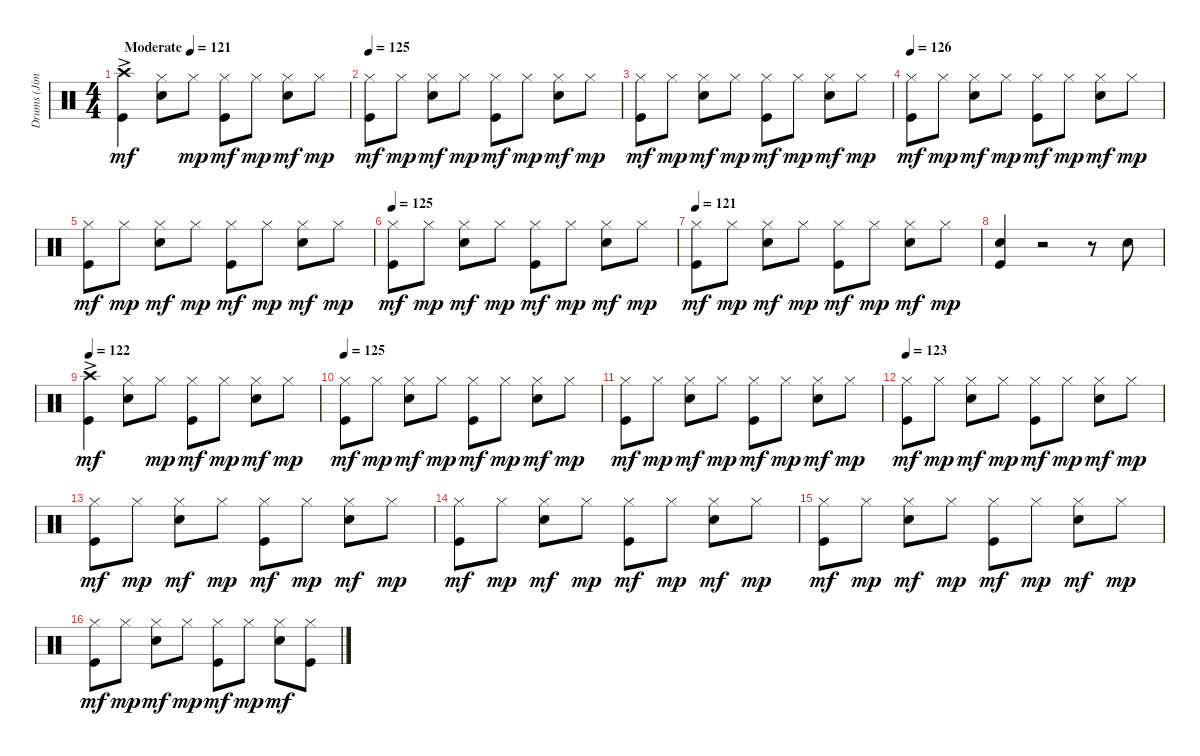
\track ("Drums (Jim Keltner)" "Drums (Jim") {instrument percussion}
\staff {score}
\articulation defaults
\ts (4 4)
\tempo (121 "Moderate")
\clef neutral
\ks c
("Crash high (hit)"{ac} "Kick (hit)").4{dy mf} ("Hi-Hat (closed)" "Snare (hit) 2").8 "Hi-Hat (closed)".8{dy mp} ("Hi-Hat (closed)" "Kick (hit)").8{dy mf} "Hi-Hat (closed)".8{dy mp} ("Hi-Hat (closed)" "Snare (hit) 2").8{dy mf} "Hi-Hat (closed)".8{dy mp} |
\tempo 125
("Hi-Hat (closed)" "Kick (hit)").8{dy mf} "Hi-Hat (closed)".8{dy mp} ("Hi-Hat (closed)" "Snare (hit) 2").8{dy mf} "Hi-Hat (closed)".8{dy mp} ("Hi-Hat (closed)" "Kick (hit)").8{dy mf} "Hi-Hat (closed)".8{dy mp} ("Hi-Hat (closed)" "Snare (hit) 2").8{dy mf} "Hi-Hat (closed)".8{dy mp} |
("Hi-Hat (closed)" "Kick (hit)").8{dy mf} "Hi-Hat (closed)".8{dy mp} ("Hi-Hat (closed)" "Snare (hit) 2").8{dy mf} "Hi-Hat (closed)".8{dy mp} ("Hi-Hat (closed)" "Kick (hit)").8{dy mf} "Hi-Hat (closed)".8{dy mp} ("Hi-Hat (closed)" "Snare (hit) 2").8{dy mf} "Hi-Hat (closed)".8{dy mp} |
\tempo 126
("Hi-Hat (closed)" "Kick (hit)").8{dy mf} "Hi-Hat (closed)".8{dy mp} ("Hi-Hat (closed)" "Snare (hit) 2").8{dy mf} "Hi-Hat (closed)".8{dy mp} ("Hi-Hat (closed)" "Kick (hit)").8{dy mf} "Hi-Hat (closed)".8{dy mp} ("Hi-Hat (closed)" "Snare (hit) 2").8{dy mf} "Hi-Hat (closed)".8{dy mp} |
("Hi-Hat (closed)" "Kick (hit)").8{dy mf} "Hi-Hat (closed)".8{dy mp} ("Hi-Hat (closed)" "Snare (hit) 2").8{dy mf} "Hi-Hat (closed)".8{dy mp} ("Hi-Hat (closed)" "Kick (hit)").8{dy mf} "Hi-Hat (closed)".8{dy mp} ("Hi-Hat (closed)" "Snare (hit) 2").8{dy mf} "Hi-Hat (closed)".8{dy mp} |
\tempo 125
("Hi-Hat (closed)" "Kick (hit)").8{dy mf} "Hi-Hat (closed)".8{dy mp} ("Hi-Hat (closed)" "Snare (hit) 2").8{dy mf} "Hi-Hat (closed)".8{dy mp} ("Hi-Hat (closed)" "Kick (hit)").8{dy mf} "Hi-Hat (closed)".8{dy mp} ("Hi-Hat (closed)" "Snare (hit) 2").8{dy mf} "Hi-Hat (closed)".8{dy mp} |
\tempo 121
("Hi-Hat (closed)" "Kick (hit)").8{dy mf} "Hi-Hat (closed)".8{dy mp} ("Hi-Hat (closed)" "Snare (hit) 2").8{dy mf} "Hi-Hat (closed)".8{dy mp} ("Hi-Hat (closed)" "Kick (hit)").8{dy mf} "Hi-Hat (closed)".8{dy mp} ("Hi-Hat (closed)" "Snare (hit) 2").8{dy mf} "Hi-Hat (closed)".8{dy mp} |
("Snare (hit) 2" "Kick (hit)").4 r.2 r.8 "Snare (hit) 2".8 |
\tempo 122
("Crash high (hit)"{ac} "Kick (hit)").4{dy mf} ("Hi-Hat (closed)" "Snare (hit) 2").8 "Hi-Hat (closed)".8{dy mp} ("Hi-Hat (closed)" "Kick (hit)").8{dy mf} "Hi-Hat (closed)".8{dy mp} ("Hi-Hat (closed)" "Snare (hit) 2").8{dy mf} "Hi-Hat (closed)".8{dy mp} |
\tempo 125
("Hi-Hat (closed)" "Kick (hit)").8{dy mf} "Hi-Hat (closed)".8{dy mp} ("Hi-Hat (closed)" "Snare (hit) 2").8{dy mf} "Hi-Hat (closed)".8{dy mp} ("Hi-Hat (closed)" "Kick (hit)").8{dy mf} "Hi-Hat (closed)".8{dy mp} ("Hi-Hat (closed)" "Snare (hit) 2").8{dy mf} "Hi-Hat (closed)".8{dy mp} |
("Hi-Hat (closed)" "Kick (hit)").8{dy mf} "Hi-Hat (closed)".8{dy mp} ("Hi-Hat (closed)" "Snare (hit) 2").8{dy mf} "Hi-Hat (closed)".8{dy mp} ("Hi-Hat (closed)" "Kick (hit)").8{dy mf} "Hi-Hat (closed)".8{dy mp} ("Hi-Hat (closed)" "Snare (hit) 2").8{dy mf} "Hi-Hat (closed)".8{dy mp} |
\tempo 123
("Hi-Hat (closed)" "Kick (hit)").8{dy mf} "Hi-Hat (closed)".8{dy mp} ("Hi-Hat (closed)" "Snare (hit) 2").8{dy mf} "Hi-Hat (closed)".8{dy mp} ("Hi-Hat (closed)" "Kick (hit)").8{dy mf} "Hi-Hat (closed)".8{dy mp} ("Hi-Hat (closed)" "Snare (hit) 2").8{dy mf} "Hi-Hat (closed)".8{dy mp} |
("Hi-Hat (closed)" "Kick (hit)").8{dy mf} "Hi-Hat (closed)".8{dy mp} ("Hi-Hat (closed)" "Snare (hit) 2").8{dy mf} "Hi-Hat (closed)".8{dy mp} ("Hi-Hat (closed)" "Kick (hit)").8{dy mf} "Hi-Hat (closed)".8{dy mp} ("Hi-Hat (closed)" "Snare (hit) 2").8{dy mf} "Hi-Hat (closed)".8{dy mp} |
("Hi-Hat (closed)" "Kick (hit)").8{dy mf} "Hi-Hat (closed)".8{dy mp} ("Hi-Hat (closed)" "Snare (hit) 2").8{dy mf} "Hi-Hat (closed)".8{dy mp} ("Hi-Hat (closed)" "Kick (hit)").8{dy mf} "Hi-Hat (closed)".8{dy mp} ("Hi-Hat (closed)" "Snare (hit) 2").8{dy mf} "Hi-Hat (closed)".8{dy mp} |
("Hi-Hat (closed)" "Kick (hit)").8{dy mf} "Hi-Hat (closed)".8{dy mp} ("Hi-Hat (closed)" "Snare (hit) 2").8{dy mf} "Hi-Hat (closed)".8{dy mp} ("Hi-Hat (closed)" "Kick (hit)").8{dy mf} "Hi-Hat (closed)".8{dy mp} ("Hi-Hat (closed)" "Snare (hit) 2").8{dy mf} "Hi-Hat (closed)".8{dy mp} |
("Hi-Hat (closed)" "Kick (hit)").8{dy mf} "Hi-Hat (closed)".8{dy mp} ("Hi-Hat (closed)" "Snare (hit) 2").8{dy mf} "Hi-Hat (closed)".8{dy mp} ("Hi-Hat (closed)" "Kick (hit)").8{dy mf} "Hi-Hat (closed)".8{dy mp} ("Hi-Hat (closed)" "Snare (hit) 2").8{dy mf} ("Hi-Hat (closed)" "Kick (hit)").8
